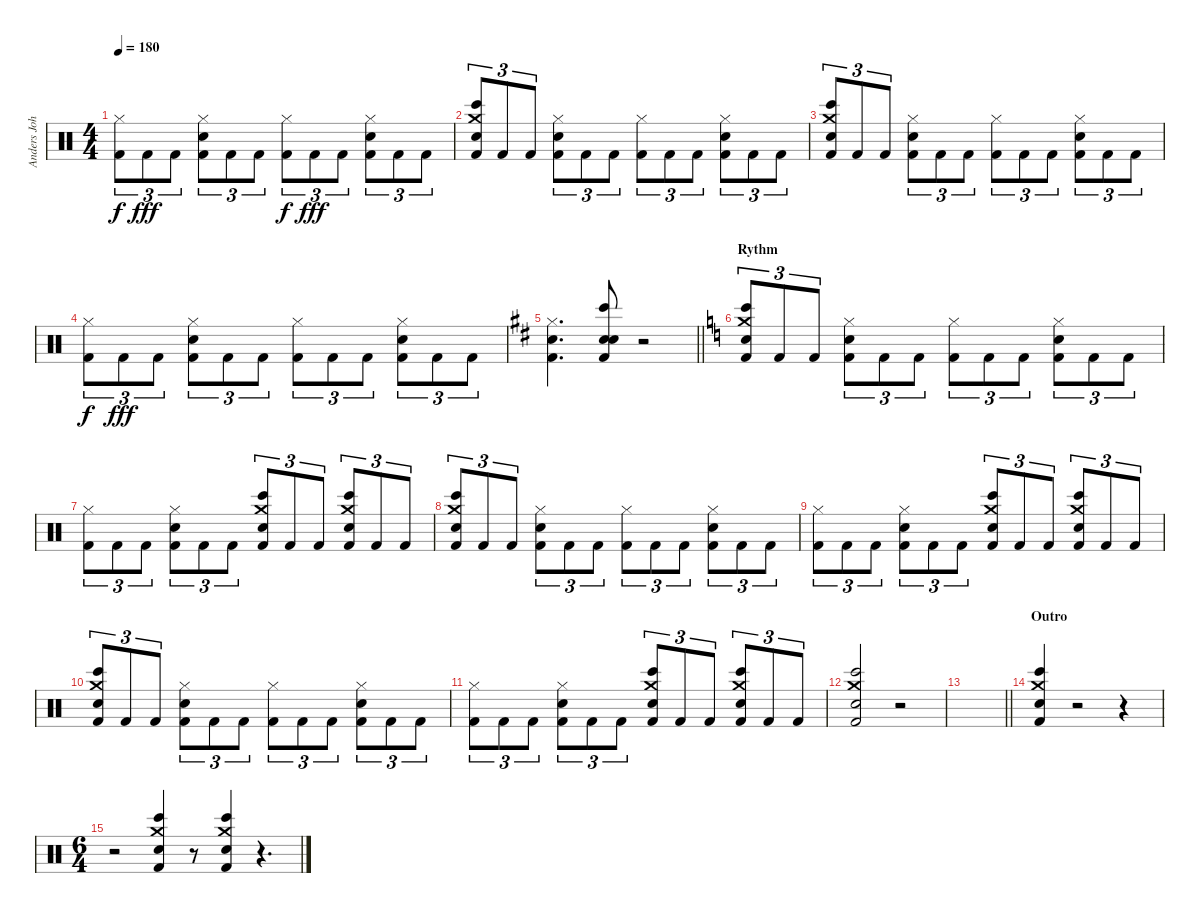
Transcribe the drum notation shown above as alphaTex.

\track ("Anders Johansson" "Anders Joh") {instrument percussion}
\staff {score}
\articulation defaults
\ts (4 4)
\tempo 180
\clef neutral
\ks c
("Hi-Hat (closed)" "Kick (hit) 2").8{tu (3 2) dy f} "Kick (hit) 2".8{tu (3 2) dy fff} "Kick (hit) 2".8{tu (3 2)} ("Hi-Hat (closed)" "Electric Snare (hit)" "Kick (hit) 2").8{tu (3 2)} "Kick (hit) 2".8{tu (3 2)} "Kick (hit) 2".8{tu (3 2)} ("Hi-Hat (closed)" "Kick (hit) 2").8{tu (3 2) dy f} "Kick (hit) 2".8{tu (3 2) dy fff} "Kick (hit) 2".8{tu (3 2)} ("Hi-Hat (closed)" "Electric Snare (hit)" "Kick (hit) 2").8{tu (3 2)} "Kick (hit) 2".8{tu (3 2)} "Kick (hit) 2".8{tu (3 2)} |
("Bongo High (hit)" "Crash medium (hit)" "Snare (hit) 2" "Kick (hit) 2").8{tu (3 2)} "Kick (hit) 2".8{tu (3 2)} "Kick (hit) 2".8{tu (3 2)} ("Hi-Hat (closed)" "Electric Snare (hit)" "Kick (hit) 2").8{tu (3 2)} "Kick (hit) 2".8{tu (3 2)} "Kick (hit) 2".8{tu (3 2)} ("Hi-Hat (closed)" "Kick (hit) 2").8{tu (3 2)} "Kick (hit) 2".8{tu (3 2)} "Kick (hit) 2".8{tu (3 2)} ("Hi-Hat (closed)" "Electric Snare (hit)" "Kick (hit) 2").8{tu (3 2)} "Kick (hit) 2".8{tu (3 2)} "Kick (hit) 2".8{tu (3 2)} |
("Bongo High (hit)" "Crash medium (hit)" "Snare (hit) 2" "Kick (hit) 2").8{tu (3 2)} "Kick (hit) 2".8{tu (3 2)} "Kick (hit) 2".8{tu (3 2)} ("Hi-Hat (closed)" "Electric Snare (hit)" "Kick (hit) 2").8{tu (3 2)} "Kick (hit) 2".8{tu (3 2)} "Kick (hit) 2".8{tu (3 2)} ("Hi-Hat (closed)" "Kick (hit) 2").8{tu (3 2)} "Kick (hit) 2".8{tu (3 2)} "Kick (hit) 2".8{tu (3 2)} ("Hi-Hat (closed)" "Electric Snare (hit)" "Kick (hit) 2").8{tu (3 2)} "Kick (hit) 2".8{tu (3 2)} "Kick (hit) 2".8{tu (3 2)} |
("Hi-Hat (closed)" "Kick (hit) 2").8{tu (3 2) dy f} "Kick (hit) 2".8{tu (3 2) dy fff} "Kick (hit) 2".8{tu (3 2)} ("Hi-Hat (closed)" "Electric Snare (hit)" "Kick (hit) 2").8{tu (3 2)} "Kick (hit) 2".8{tu (3 2)} "Kick (hit) 2".8{tu (3 2)} ("Hi-Hat (closed)" "Kick (hit) 2").8{tu (3 2)} "Kick (hit) 2".8{tu (3 2)} "Kick (hit) 2".8{tu (3 2)} ("Hi-Hat (closed)" "Electric Snare (hit)" "Kick (hit) 2").8{tu (3 2)} "Kick (hit) 2".8{tu (3 2)} "Kick (hit) 2".8{tu (3 2)} |
\barLineRight lightlight
\ks d
("Hi-Hat (closed)" "Electric Snare (hit)" "Kick (hit) 2").4{d} ("Bongo High (hit)" "Electric Snare (hit)" "Snare (hit) 2" "Kick (hit) 2").8 r.2 |
\section ("" "Rythm")
\ks c
("Bongo High (hit)" "Crash medium (hit)" "Snare (hit) 2" "Kick (hit) 2").8{tu (3 2)} "Kick (hit) 2".8{tu (3 2)} "Kick (hit) 2".8{tu (3 2)} ("Hi-Hat (closed)" "Electric Snare (hit)" "Kick (hit) 2").8{tu (3 2)} "Kick (hit) 2".8{tu (3 2)} "Kick (hit) 2".8{tu (3 2)} ("Hi-Hat (closed)" "Kick (hit) 2").8{tu (3 2)} "Kick (hit) 2".8{tu (3 2)} "Kick (hit) 2".8{tu (3 2)} ("Hi-Hat (closed)" "Electric Snare (hit)" "Kick (hit) 2").8{tu (3 2)} "Kick (hit) 2".8{tu (3 2)} "Kick (hit) 2".8{tu (3 2)} |
("Hi-Hat (closed)" "Kick (hit) 2").8{tu (3 2)} "Kick (hit) 2".8{tu (3 2)} "Kick (hit) 2".8{tu (3 2)} ("Hi-Hat (closed)" "Electric Snare (hit)" "Kick (hit) 2").8{tu (3 2)} "Kick (hit) 2".8{tu (3 2)} "Kick (hit) 2".8{tu (3 2)} ("Bongo High (hit)" "Crash medium (hit)" "Snare (hit) 2" "Kick (hit) 2").8{tu (3 2)} "Kick (hit) 2".8{tu (3 2)} "Kick (hit) 2".8{tu (3 2)} ("Bongo High (hit)" "Crash medium (hit)" "Snare (hit) 2" "Kick (hit) 2").8{tu (3 2)} "Kick (hit) 2".8{tu (3 2)} "Kick (hit) 2".8{tu (3 2)} |
("Bongo High (hit)" "Crash medium (hit)" "Snare (hit) 2" "Kick (hit) 2").8{tu (3 2)} "Kick (hit) 2".8{tu (3 2)} "Kick (hit) 2".8{tu (3 2)} ("Hi-Hat (closed)" "Electric Snare (hit)" "Kick (hit) 2").8{tu (3 2)} "Kick (hit) 2".8{tu (3 2)} "Kick (hit) 2".8{tu (3 2)} ("Hi-Hat (closed)" "Kick (hit) 2").8{tu (3 2)} "Kick (hit) 2".8{tu (3 2)} "Kick (hit) 2".8{tu (3 2)} ("Hi-Hat (closed)" "Electric Snare (hit)" "Kick (hit) 2").8{tu (3 2)} "Kick (hit) 2".8{tu (3 2)} "Kick (hit) 2".8{tu (3 2)} |
("Hi-Hat (closed)" "Kick (hit) 2").8{tu (3 2)} "Kick (hit) 2".8{tu (3 2)} "Kick (hit) 2".8{tu (3 2)} ("Hi-Hat (closed)" "Electric Snare (hit)" "Kick (hit) 2").8{tu (3 2)} "Kick (hit) 2".8{tu (3 2)} "Kick (hit) 2".8{tu (3 2)} ("Bongo High (hit)" "Crash medium (hit)" "Snare (hit) 2" "Kick (hit) 2").8{tu (3 2)} "Kick (hit) 2".8{tu (3 2)} "Kick (hit) 2".8{tu (3 2)} ("Bongo High (hit)" "Crash medium (hit)" "Snare (hit) 2" "Kick (hit) 2").8{tu (3 2)} "Kick (hit) 2".8{tu (3 2)} "Kick (hit) 2".8{tu (3 2)} |
("Bongo High (hit)" "Crash medium (hit)" "Snare (hit) 2" "Kick (hit) 2").8{tu (3 2)} "Kick (hit) 2".8{tu (3 2)} "Kick (hit) 2".8{tu (3 2)} ("Hi-Hat (closed)" "Electric Snare (hit)" "Kick (hit) 2").8{tu (3 2)} "Kick (hit) 2".8{tu (3 2)} "Kick (hit) 2".8{tu (3 2)} ("Hi-Hat (closed)" "Kick (hit) 2").8{tu (3 2)} "Kick (hit) 2".8{tu (3 2)} "Kick (hit) 2".8{tu (3 2)} ("Hi-Hat (closed)" "Electric Snare (hit)" "Kick (hit) 2").8{tu (3 2)} "Kick (hit) 2".8{tu (3 2)} "Kick (hit) 2".8{tu (3 2)} |
("Hi-Hat (closed)" "Kick (hit) 2").8{tu (3 2)} "Kick (hit) 2".8{tu (3 2)} "Kick (hit) 2".8{tu (3 2)} ("Hi-Hat (closed)" "Electric Snare (hit)" "Kick (hit) 2").8{tu (3 2)} "Kick (hit) 2".8{tu (3 2)} "Kick (hit) 2".8{tu (3 2)} ("Bongo High (hit)" "Crash medium (hit)" "Snare (hit) 2" "Kick (hit) 2").8{tu (3 2)} "Kick (hit) 2".8{tu (3 2)} "Kick (hit) 2".8{tu (3 2)} ("Bongo High (hit)" "Crash medium (hit)" "Snare (hit) 2" "Kick (hit) 2").8{tu (3 2)} "Kick (hit) 2".8{tu (3 2)} "Kick (hit) 2".8{tu (3 2)} |
("Bongo High (hit)" "Crash medium (hit)" "Snare (hit) 2" "Kick (hit) 2").2 r.2 |
\barLineRight lightlight
|
\section ("" "Outro")
("Bongo High (hit)" "Crash medium (hit)" "Snare (hit) 2" "Kick (hit) 2").4 r.2 r.4 |
\ts (6 4)
r.2 ("Bongo High (hit)" "Crash medium (hit)" "Snare (hit) 2" "Kick (hit) 2").4 r.8 ("Bongo High (hit)" "Crash medium (hit)" "Snare (hit) 2" "Kick (hit) 2").4 r.4{d}
